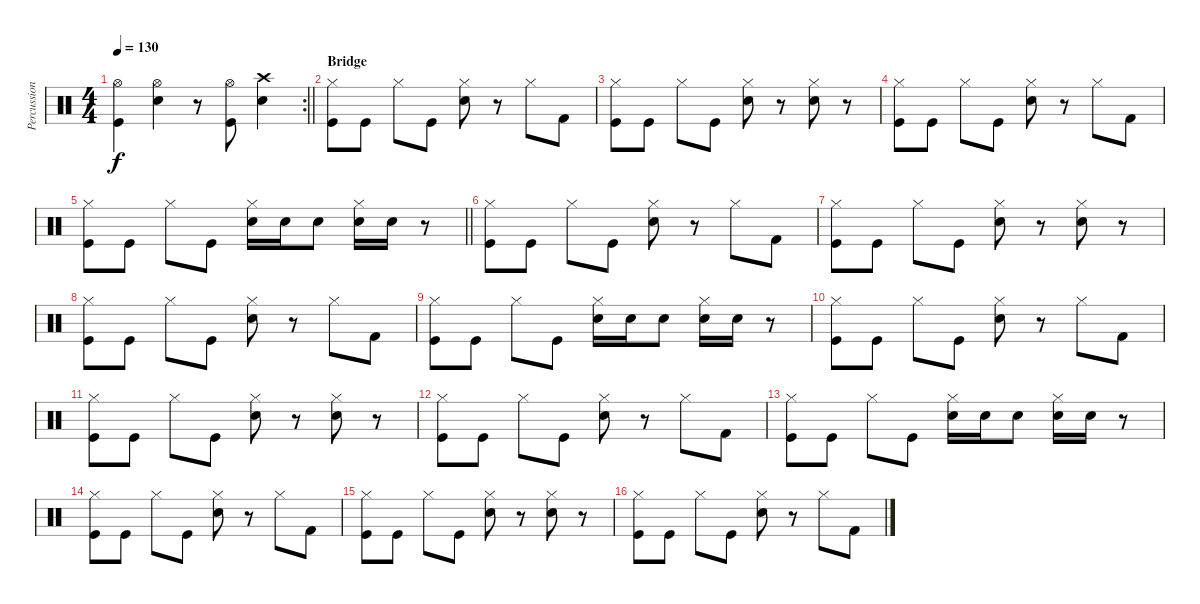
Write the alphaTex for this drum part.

\track ("Percussion" "Percussion") {instrument percussion}
\staff {score}
\articulation defaults
\rc 2
\ts (4 4)
\tempo 130
\clef neutral
\barLineRight lightlight
\ks c
("Hi-Hat (open)" "Kick (hit)").4{dy f} ("Hi-Hat (open)" "Snare (hit) 2").4 r.8 ("Hi-Hat (open)" "Kick (hit)").8 ("Crash high (hit)" "Snare (hit) 2").4 |
\section ("" "Bridge")
("Hi-Hat (closed)" "Kick (hit)").8 "Kick (hit)".8 "Hi-Hat (closed)".8 "Kick (hit)".8 ("Hi-Hat (closed)" "Snare (hit) 2").8 r.8 "Hi-Hat (closed)".8 "Kick (hit) 2".8 |
("Hi-Hat (closed)" "Kick (hit)").8 "Kick (hit)".8 "Hi-Hat (closed)".8 "Kick (hit)".8 ("Hi-Hat (closed)" "Snare (hit) 2").8 r.8 ("Hi-Hat (closed)" "Snare (hit) 2").8 r.8 |
("Hi-Hat (closed)" "Kick (hit)").8 "Kick (hit)".8 "Hi-Hat (closed)".8 "Kick (hit)".8 ("Hi-Hat (closed)" "Snare (hit) 2").8 r.8 "Hi-Hat (closed)".8 "Kick (hit) 2".8 |
\barLineRight lightlight
("Hi-Hat (closed)" "Kick (hit)").8 "Kick (hit)".8 "Hi-Hat (closed)".8 "Kick (hit)".8 ("Hi-Hat (closed)" "Snare (hit) 2").16 "Snare (hit) 2".16 "Snare (hit) 2".8 ("Hi-Hat (closed)" "Snare (hit) 2").16 "Snare (hit) 2".16 r.8 |
("Hi-Hat (closed)" "Kick (hit)").8 "Kick (hit)".8 "Hi-Hat (closed)".8 "Kick (hit)".8 ("Hi-Hat (closed)" "Snare (hit) 2").8 r.8 "Hi-Hat (closed)".8 "Kick (hit) 2".8 |
("Hi-Hat (closed)" "Kick (hit)").8 "Kick (hit)".8 "Hi-Hat (closed)".8 "Kick (hit)".8 ("Hi-Hat (closed)" "Snare (hit) 2").8 r.8 ("Hi-Hat (closed)" "Snare (hit) 2").8 r.8 |
("Hi-Hat (closed)" "Kick (hit)").8 "Kick (hit)".8 "Hi-Hat (closed)".8 "Kick (hit)".8 ("Hi-Hat (closed)" "Snare (hit) 2").8 r.8 "Hi-Hat (closed)".8 "Kick (hit) 2".8 |
("Hi-Hat (closed)" "Kick (hit)").8 "Kick (hit)".8 "Hi-Hat (closed)".8 "Kick (hit)".8 ("Hi-Hat (closed)" "Snare (hit) 2").16 "Snare (hit) 2".16 "Snare (hit) 2".8 ("Hi-Hat (closed)" "Snare (hit) 2").16 "Snare (hit) 2".16 r.8 |
("Hi-Hat (closed)" "Kick (hit)").8 "Kick (hit)".8 "Hi-Hat (closed)".8 "Kick (hit)".8 ("Hi-Hat (closed)" "Snare (hit) 2").8 r.8 "Hi-Hat (closed)".8 "Kick (hit) 2".8 |
("Hi-Hat (closed)" "Kick (hit)").8 "Kick (hit)".8 "Hi-Hat (closed)".8 "Kick (hit)".8 ("Hi-Hat (closed)" "Snare (hit) 2").8 r.8 ("Hi-Hat (closed)" "Snare (hit) 2").8 r.8 |
("Hi-Hat (closed)" "Kick (hit)").8 "Kick (hit)".8 "Hi-Hat (closed)".8 "Kick (hit)".8 ("Hi-Hat (closed)" "Snare (hit) 2").8 r.8 "Hi-Hat (closed)".8 "Kick (hit) 2".8 |
("Hi-Hat (closed)" "Kick (hit)").8 "Kick (hit)".8 "Hi-Hat (closed)".8 "Kick (hit)".8 ("Hi-Hat (closed)" "Snare (hit) 2").16 "Snare (hit) 2".16 "Snare (hit) 2".8 ("Hi-Hat (closed)" "Snare (hit) 2").16 "Snare (hit) 2".16 r.8 |
("Hi-Hat (closed)" "Kick (hit)").8 "Kick (hit)".8 "Hi-Hat (closed)".8 "Kick (hit)".8 ("Hi-Hat (closed)" "Snare (hit) 2").8 r.8 "Hi-Hat (closed)".8 "Kick (hit) 2".8 |
("Hi-Hat (closed)" "Kick (hit)").8 "Kick (hit)".8 "Hi-Hat (closed)".8 "Kick (hit)".8 ("Hi-Hat (closed)" "Snare (hit) 2").8 r.8 ("Hi-Hat (closed)" "Snare (hit) 2").8 r.8 |
("Hi-Hat (closed)" "Kick (hit)").8 "Kick (hit)".8 "Hi-Hat (closed)".8 "Kick (hit)".8 ("Hi-Hat (closed)" "Snare (hit) 2").8 r.8 "Hi-Hat (closed)".8 "Kick (hit) 2".8
